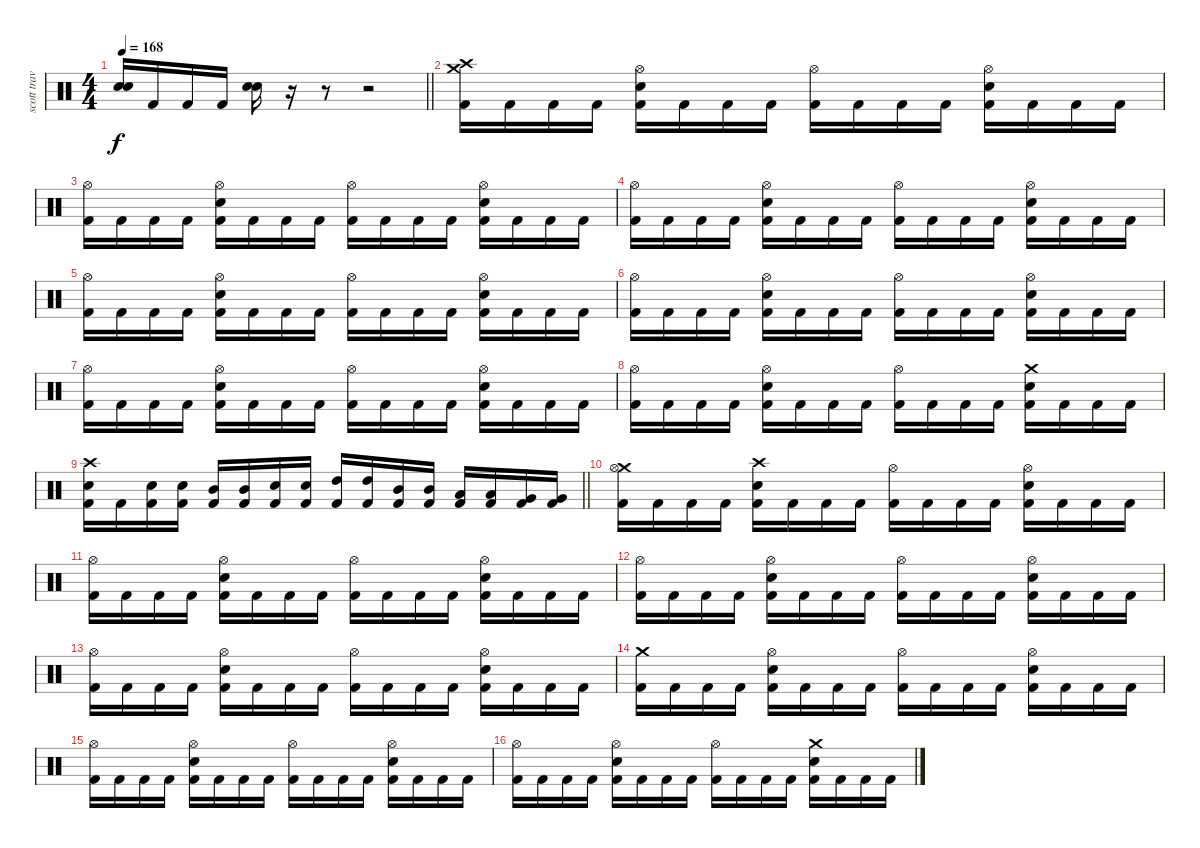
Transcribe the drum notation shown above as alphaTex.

\track ("scott travis" "scott trav") {instrument percussion}
\staff {score}
\articulation defaults
\ts (4 4)
\tempo 168
\clef neutral
\barLineRight lightlight
\ks c
("Snare (hit) 2" "Snare (hit) 2").16{dy f} "Kick (hit) 2".16 "Kick (hit) 2".16 "Kick (hit) 2".16 ("Snare (hit) 2" "Snare (hit) 2").16 r.16 r.8 r.2 |
("Crash medium (hit)" "Crash high (hit)" "Kick (hit) 2").16 "Kick (hit) 2".16 "Kick (hit) 2".16 "Kick (hit) 2".16 ("Hi-Hat (open)" "Snare (hit) 2" "Kick (hit) 2").16 "Kick (hit) 2".16 "Kick (hit) 2".16 "Kick (hit) 2".16 ("Hi-Hat (open)" "Kick (hit) 2").16 "Kick (hit) 2".16 "Kick (hit) 2".16 "Kick (hit) 2".16 ("Hi-Hat (open)" "Snare (hit) 2" "Kick (hit) 2").16 "Kick (hit) 2".16 "Kick (hit) 2".16 "Kick (hit) 2".16 |
("Hi-Hat (open)" "Kick (hit) 2").16 "Kick (hit) 2".16 "Kick (hit) 2".16 "Kick (hit) 2".16 ("Hi-Hat (open)" "Snare (hit) 2" "Kick (hit) 2").16 "Kick (hit) 2".16 "Kick (hit) 2".16 "Kick (hit) 2".16 ("Hi-Hat (open)" "Kick (hit) 2").16 "Kick (hit) 2".16 "Kick (hit) 2".16 "Kick (hit) 2".16 ("Hi-Hat (open)" "Snare (hit) 2" "Kick (hit) 2").16 "Kick (hit) 2".16 "Kick (hit) 2".16 "Kick (hit) 2".16 |
("Hi-Hat (open)" "Kick (hit) 2").16 "Kick (hit) 2".16 "Kick (hit) 2".16 "Kick (hit) 2".16 ("Hi-Hat (open)" "Snare (hit) 2" "Kick (hit) 2").16 "Kick (hit) 2".16 "Kick (hit) 2".16 "Kick (hit) 2".16 ("Hi-Hat (open)" "Kick (hit) 2").16 "Kick (hit) 2".16 "Kick (hit) 2".16 "Kick (hit) 2".16 ("Hi-Hat (open)" "Snare (hit) 2" "Kick (hit) 2").16 "Kick (hit) 2".16 "Kick (hit) 2".16 "Kick (hit) 2".16 |
("Hi-Hat (open)" "Kick (hit) 2").16 "Kick (hit) 2".16 "Kick (hit) 2".16 "Kick (hit) 2".16 ("Hi-Hat (open)" "Snare (hit) 2" "Kick (hit) 2").16 "Kick (hit) 2".16 "Kick (hit) 2".16 "Kick (hit) 2".16 ("Hi-Hat (open)" "Kick (hit) 2").16 "Kick (hit) 2".16 "Kick (hit) 2".16 "Kick (hit) 2".16 ("Hi-Hat (open)" "Snare (hit) 2" "Kick (hit) 2").16 "Kick (hit) 2".16 "Kick (hit) 2".16 "Kick (hit) 2".16 |
("Hi-Hat (open)" "Kick (hit) 2").16 "Kick (hit) 2".16 "Kick (hit) 2".16 "Kick (hit) 2".16 ("Hi-Hat (open)" "Snare (hit) 2" "Kick (hit) 2").16 "Kick (hit) 2".16 "Kick (hit) 2".16 "Kick (hit) 2".16 ("Hi-Hat (open)" "Kick (hit) 2").16 "Kick (hit) 2".16 "Kick (hit) 2".16 "Kick (hit) 2".16 ("Hi-Hat (open)" "Snare (hit) 2" "Kick (hit) 2").16 "Kick (hit) 2".16 "Kick (hit) 2".16 "Kick (hit) 2".16 |
("Hi-Hat (open)" "Kick (hit) 2").16 "Kick (hit) 2".16 "Kick (hit) 2".16 "Kick (hit) 2".16 ("Hi-Hat (open)" "Snare (hit) 2" "Kick (hit) 2").16 "Kick (hit) 2".16 "Kick (hit) 2".16 "Kick (hit) 2".16 ("Hi-Hat (open)" "Kick (hit) 2").16 "Kick (hit) 2".16 "Kick (hit) 2".16 "Kick (hit) 2".16 ("Hi-Hat (open)" "Snare (hit) 2" "Kick (hit) 2").16 "Kick (hit) 2".16 "Kick (hit) 2".16 "Kick (hit) 2".16 |
("Hi-Hat (open)" "Kick (hit) 2").16 "Kick (hit) 2".16 "Kick (hit) 2".16 "Kick (hit) 2".16 ("Hi-Hat (open)" "Snare (hit) 2" "Kick (hit) 2").16 "Kick (hit) 2".16 "Kick (hit) 2".16 "Kick (hit) 2".16 ("Hi-Hat (open)" "Kick (hit) 2").16 "Kick (hit) 2".16 "Kick (hit) 2".16 "Kick (hit) 2".16 ("Crash medium (hit)" "Snare (hit) 2" "Kick (hit) 2").16 "Kick (hit) 2".16 "Kick (hit) 2".16 "Kick (hit) 2".16 |
\barLineRight lightlight
("Crash high (hit)" "Snare (hit) 2" "Kick (hit) 2").16 "Kick (hit) 2".16 ("Snare (hit) 2" "Kick (hit) 2").16 ("Snare (hit) 2" "Kick (hit) 2").16 ("Mid Tom (hit)" "Kick (hit) 2").16 ("Mid Tom (hit)" "Kick (hit) 2").16 ("Snare (hit) 2" "Kick (hit) 2").16 ("Snare (hit) 2" "Kick (hit) 2").16 ("High Tom (hit)" "Kick (hit) 2").16 ("High Tom (hit)" "Kick (hit) 2").16 ("Mid Tom (hit)" "Kick (hit) 2").16 ("Mid Tom (hit)" "Kick (hit) 2").16 ("Low Tom (hit)" "Kick (hit) 2").16 ("Low Tom (hit)" "Kick (hit) 2").16 ("Very Low Tom (hit)" "Kick (hit) 2").16 ("Very Low Tom (hit)" "Kick (hit) 2").16 |
("Crash medium (hit)" "Hi-Hat (open)" "Kick (hit) 2").16 "Kick (hit) 2".16 "Kick (hit) 2".16 "Kick (hit) 2".16 ("Crash high (hit)" "Snare (hit) 2" "Kick (hit) 2").16 "Kick (hit) 2".16 "Kick (hit) 2".16 "Kick (hit) 2".16 ("Hi-Hat (open)" "Kick (hit) 2").16 "Kick (hit) 2".16 "Kick (hit) 2".16 "Kick (hit) 2".16 ("Hi-Hat (open)" "Snare (hit) 2" "Kick (hit) 2").16 "Kick (hit) 2".16 "Kick (hit) 2".16 "Kick (hit) 2".16 |
("Hi-Hat (open)" "Kick (hit) 2").16 "Kick (hit) 2".16 "Kick (hit) 2".16 "Kick (hit) 2".16 ("Hi-Hat (open)" "Snare (hit) 2" "Kick (hit) 2").16 "Kick (hit) 2".16 "Kick (hit) 2".16 "Kick (hit) 2".16 ("Hi-Hat (open)" "Kick (hit) 2").16 "Kick (hit) 2".16 "Kick (hit) 2".16 "Kick (hit) 2".16 ("Hi-Hat (open)" "Snare (hit) 2" "Kick (hit) 2").16 "Kick (hit) 2".16 "Kick (hit) 2".16 "Kick (hit) 2".16 |
("Hi-Hat (open)" "Kick (hit) 2").16 "Kick (hit) 2".16 "Kick (hit) 2".16 "Kick (hit) 2".16 ("Hi-Hat (open)" "Snare (hit) 2" "Kick (hit) 2").16 "Kick (hit) 2".16 "Kick (hit) 2".16 "Kick (hit) 2".16 ("Hi-Hat (open)" "Kick (hit) 2").16 "Kick (hit) 2".16 "Kick (hit) 2".16 "Kick (hit) 2".16 ("Hi-Hat (open)" "Snare (hit) 2" "Kick (hit) 2").16 "Kick (hit) 2".16 "Kick (hit) 2".16 "Kick (hit) 2".16 |
("Hi-Hat (open)" "Kick (hit) 2").16 "Kick (hit) 2".16 "Kick (hit) 2".16 "Kick (hit) 2".16 ("Hi-Hat (open)" "Snare (hit) 2" "Kick (hit) 2").16 "Kick (hit) 2".16 "Kick (hit) 2".16 "Kick (hit) 2".16 ("Hi-Hat (open)" "Kick (hit) 2").16 "Kick (hit) 2".16 "Kick (hit) 2".16 "Kick (hit) 2".16 ("Hi-Hat (open)" "Snare (hit) 2" "Kick (hit) 2").16 "Kick (hit) 2".16 "Kick (hit) 2".16 "Kick (hit) 2".16 |
("Crash medium (hit)" "Kick (hit) 2").16 "Kick (hit) 2".16 "Kick (hit) 2".16 "Kick (hit) 2".16 ("Hi-Hat (open)" "Snare (hit) 2" "Kick (hit) 2").16 "Kick (hit) 2".16 "Kick (hit) 2".16 "Kick (hit) 2".16 ("Hi-Hat (open)" "Kick (hit) 2").16 "Kick (hit) 2".16 "Kick (hit) 2".16 "Kick (hit) 2".16 ("Hi-Hat (open)" "Snare (hit) 2" "Kick (hit) 2").16 "Kick (hit) 2".16 "Kick (hit) 2".16 "Kick (hit) 2".16 |
("Hi-Hat (open)" "Kick (hit) 2").16 "Kick (hit) 2".16 "Kick (hit) 2".16 "Kick (hit) 2".16 ("Hi-Hat (open)" "Snare (hit) 2" "Kick (hit) 2").16 "Kick (hit) 2".16 "Kick (hit) 2".16 "Kick (hit) 2".16 ("Hi-Hat (open)" "Kick (hit) 2").16 "Kick (hit) 2".16 "Kick (hit) 2".16 "Kick (hit) 2".16 ("Hi-Hat (open)" "Snare (hit) 2" "Kick (hit) 2").16 "Kick (hit) 2".16 "Kick (hit) 2".16 "Kick (hit) 2".16 |
("Hi-Hat (open)" "Kick (hit) 2").16 "Kick (hit) 2".16 "Kick (hit) 2".16 "Kick (hit) 2".16 ("Hi-Hat (open)" "Snare (hit) 2" "Kick (hit) 2").16 "Kick (hit) 2".16 "Kick (hit) 2".16 "Kick (hit) 2".16 ("Hi-Hat (open)" "Kick (hit) 2").16 "Kick (hit) 2".16 "Kick (hit) 2".16 "Kick (hit) 2".16 ("Crash medium (hit)" "Snare (hit) 2" "Kick (hit) 2").16 "Kick (hit) 2".16 "Kick (hit) 2".16 "Kick (hit) 2".16
